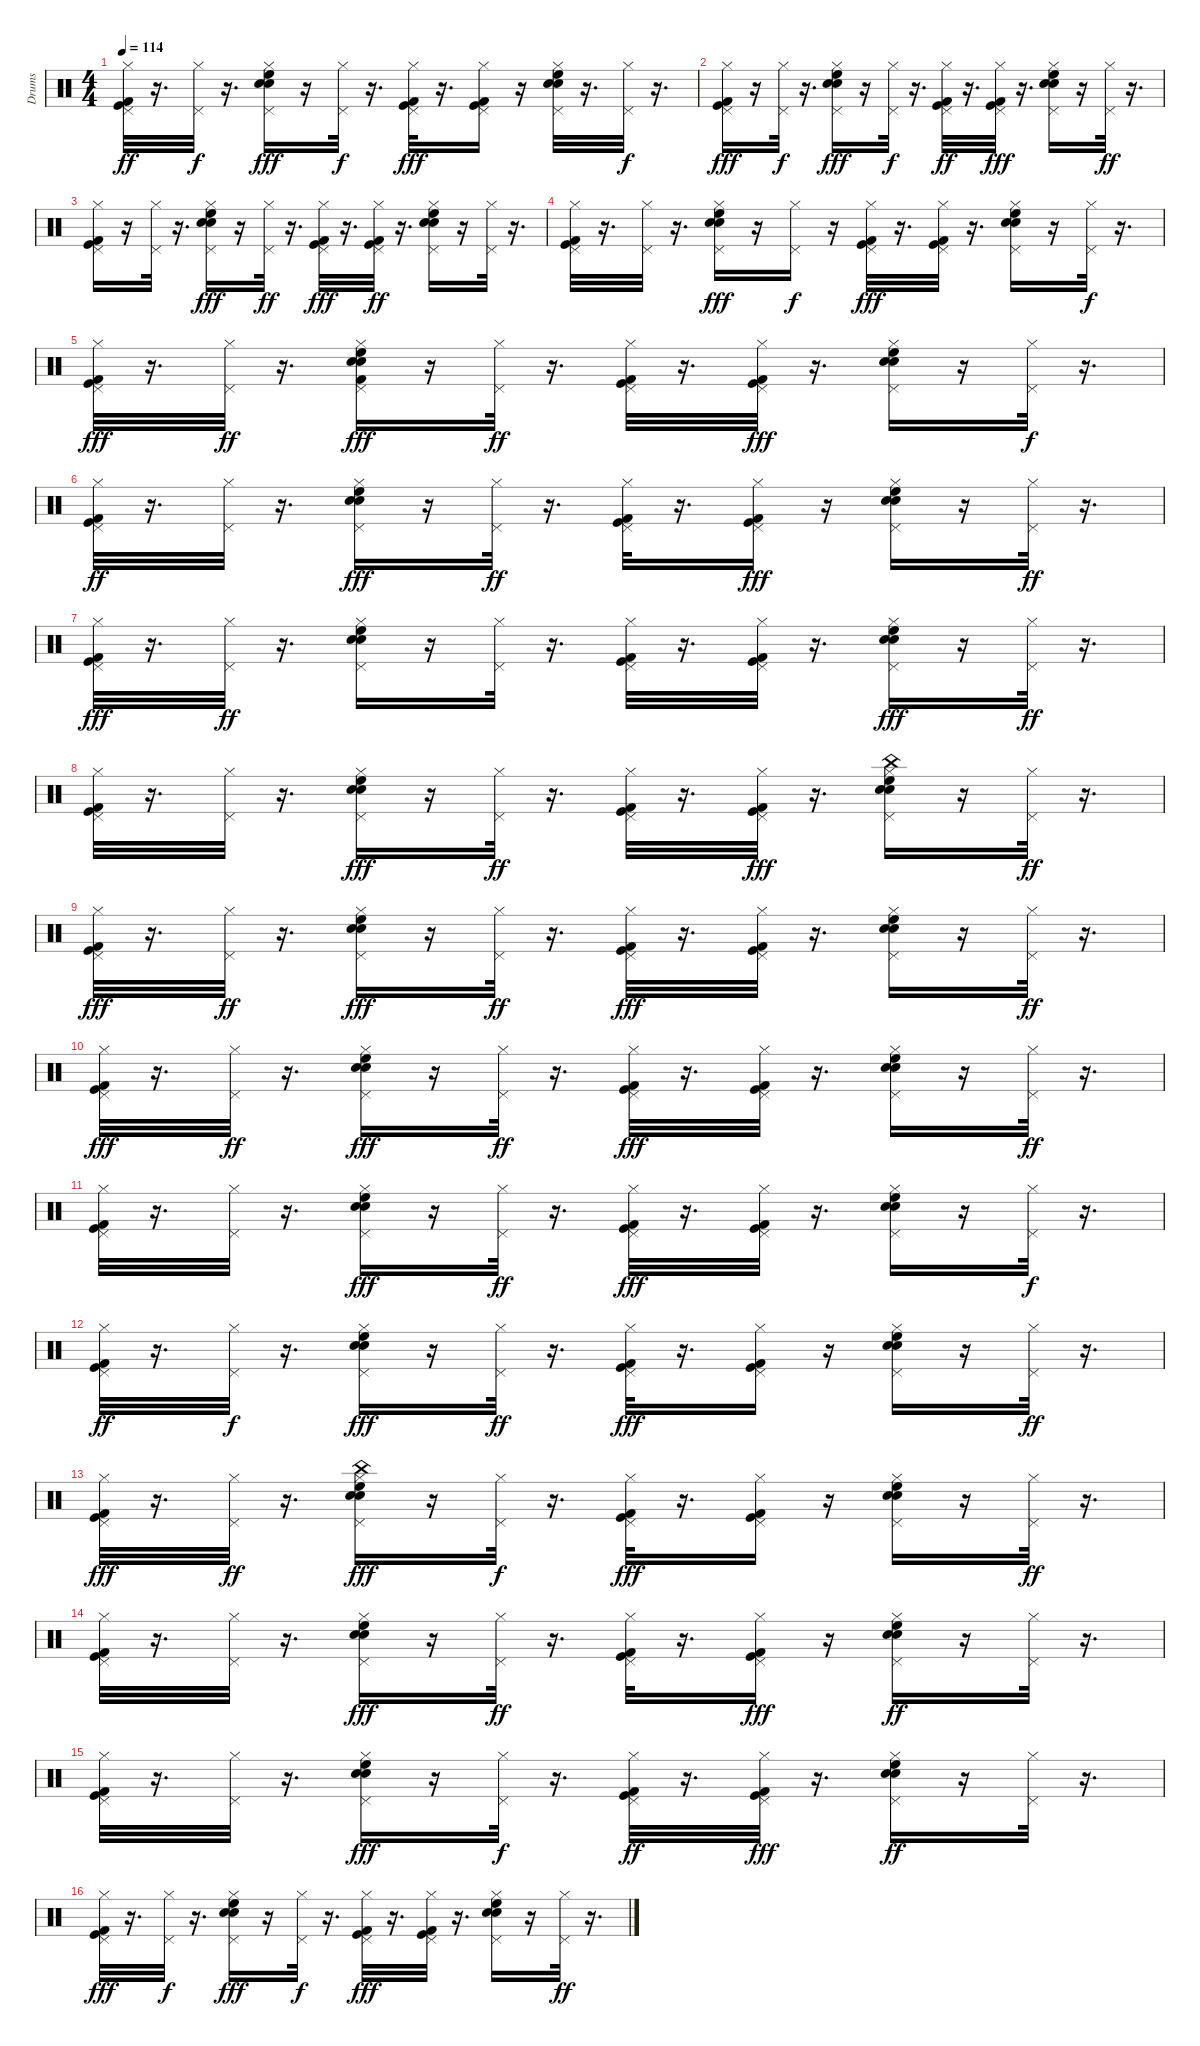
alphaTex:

\track ("Drums" "Drums") {instrument percussion}
\staff {score}
\articulation defaults
\ts (4 4)
\tempo 114
\clef neutral
\ks c
("Kick (hit)" "Pedal Hi-Hat (hit)" "Kick (hit) 2" "Hi-Hat (closed)").32{dy ff} r.16{d} ("Pedal Hi-Hat (hit)" "Hi-Hat (closed)").32{dy f} r.16{d} ("Electric Snare (hit)" "High Floor Tom (hit)" "Pedal Hi-Hat (hit)" "Hi-Hat (closed)" "Snare (hit) 2").16{dy fff} r.16 ("Pedal Hi-Hat (hit)" "Hi-Hat (closed)").32{dy f} r.16{d} ("Kick (hit) 2" "Kick (hit)" "Pedal Hi-Hat (hit)" "Hi-Hat (closed)").32{dy fff} r.16{d} ("Kick (hit)" "Kick (hit) 2" "Pedal Hi-Hat (hit)" "Hi-Hat (closed)").16 r.16 ("Snare (hit) 2" "Electric Snare (hit)" "High Floor Tom (hit)" "Pedal Hi-Hat (hit)" "Hi-Hat (closed)").32 r.16{d} ("Pedal Hi-Hat (hit)" "Hi-Hat (closed)").32{dy f} r.16{d} |
("Kick (hit)" "Pedal Hi-Hat (hit)" "Hi-Hat (closed)" "Kick (hit) 2").16{dy fff} r.16 ("Pedal Hi-Hat (hit)" "Hi-Hat (closed)").32{dy f} r.16{d} ("High Floor Tom (hit)" "Snare (hit) 2" "Pedal Hi-Hat (hit)" "Hi-Hat (closed)" "Electric Snare (hit)").16{dy fff} r.16 ("Pedal Hi-Hat (hit)" "Hi-Hat (closed)").32{dy f} r.16{d} ("Pedal Hi-Hat (hit)" "Kick (hit) 2" "Kick (hit)" "Hi-Hat (closed)").32{dy ff} r.16{d} ("Pedal Hi-Hat (hit)" "Kick (hit)" "Hi-Hat (closed)" "Kick (hit) 2").32{dy fff} r.16{d} ("Snare (hit) 2" "High Floor Tom (hit)" "Pedal Hi-Hat (hit)" "Hi-Hat (closed)" "Electric Snare (hit)").16 r.16 ("Pedal Hi-Hat (hit)" "Hi-Hat (closed)").32{dy ff} r.16{d} |
("Kick (hit)" "Kick (hit) 2" "Pedal Hi-Hat (hit)" "Hi-Hat (closed)").16 r.16 ("Pedal Hi-Hat (hit)" "Hi-Hat (closed)").32 r.16{d} ("Snare (hit) 2" "Pedal Hi-Hat (hit)" "Hi-Hat (closed)" "High Floor Tom (hit)" "Electric Snare (hit)").16{dy fff} r.16 ("Pedal Hi-Hat (hit)" "Hi-Hat (closed)").32{dy ff} r.16{d} ("Pedal Hi-Hat (hit)" "Hi-Hat (closed)" "Kick (hit) 2" "Kick (hit)").32{dy fff} r.16{d} ("Kick (hit) 2" "Pedal Hi-Hat (hit)" "Kick (hit)" "Hi-Hat (closed)").32{dy ff} r.16{d} ("Snare (hit) 2" "High Floor Tom (hit)" "Electric Snare (hit)" "Pedal Hi-Hat (hit)" "Hi-Hat (closed)").16 r.16 ("Pedal Hi-Hat (hit)" "Hi-Hat (closed)").32 r.16{d} |
("Kick (hit)" "Kick (hit) 2" "Pedal Hi-Hat (hit)" "Hi-Hat (closed)").32 r.16{d} ("Pedal Hi-Hat (hit)" "Hi-Hat (closed)").32 r.16{d} ("Pedal Hi-Hat (hit)" "Snare (hit) 2" "Hi-Hat (closed)" "Electric Snare (hit)" "High Floor Tom (hit)").16{dy fff} r.16 ("Pedal Hi-Hat (hit)" "Hi-Hat (closed)").16{dy f} r.16 ("Pedal Hi-Hat (hit)" "Hi-Hat (closed)" "Kick (hit) 2" "Kick (hit)").32{dy fff} r.16{d} ("Pedal Hi-Hat (hit)" "Hi-Hat (closed)" "Kick (hit)" "Kick (hit) 2").32 r.16{d} ("Snare (hit) 2" "Pedal Hi-Hat (hit)" "Hi-Hat (closed)" "Electric Snare (hit)" "High Floor Tom (hit)").16 r.16 ("Pedal Hi-Hat (hit)" "Hi-Hat (closed)").32{dy f} r.16{d} |
("Pedal Hi-Hat (hit)" "Kick (hit)" "Hi-Hat (closed)" "Kick (hit) 2").32{dy fff} r.16{d} ("Pedal Hi-Hat (hit)" "Hi-Hat (closed)").32{dy ff} r.16{d} ("Kick (hit) 2" "Pedal Hi-Hat (hit)" "Snare (hit) 2" "Hi-Hat (closed)" "High Floor Tom (hit)" "Electric Snare (hit)").16{dy fff} r.16 ("Pedal Hi-Hat (hit)" "Hi-Hat (closed)").32{dy ff} r.16{d} ("Pedal Hi-Hat (hit)" "Kick (hit) 2" "Kick (hit)" "Hi-Hat (closed)").32 r.16{d} ("Pedal Hi-Hat (hit)" "Hi-Hat (closed)" "Kick (hit)" "Kick (hit) 2").32{dy fff} r.16{d} ("Pedal Hi-Hat (hit)" "Hi-Hat (closed)" "High Floor Tom (hit)" "Electric Snare (hit)" "Snare (hit) 2").16 r.16 ("Pedal Hi-Hat (hit)" "Hi-Hat (closed)").32{dy f} r.16{d} |
("Kick (hit)" "Kick (hit) 2" "Pedal Hi-Hat (hit)" "Hi-Hat (closed)").32{dy ff} r.16{d} ("Pedal Hi-Hat (hit)" "Hi-Hat (closed)").32 r.16{d} ("Electric Snare (hit)" "Pedal Hi-Hat (hit)" "Snare (hit) 2" "Hi-Hat (closed)" "High Floor Tom (hit)").16{dy fff} r.16 ("Pedal Hi-Hat (hit)" "Hi-Hat (closed)").32{dy ff} r.16{d} ("Kick (hit)" "Kick (hit) 2" "Pedal Hi-Hat (hit)" "Hi-Hat (closed)").32 r.16{d} ("Kick (hit)" "Pedal Hi-Hat (hit)" "Hi-Hat (closed)" "Kick (hit) 2").16{dy fff} r.16 ("Electric Snare (hit)" "High Floor Tom (hit)" "Pedal Hi-Hat (hit)" "Hi-Hat (closed)" "Snare (hit) 2").16 r.16 ("Pedal Hi-Hat (hit)" "Hi-Hat (closed)").32{dy ff} r.16{d} |
("Kick (hit)" "Pedal Hi-Hat (hit)" "Hi-Hat (closed)" "Kick (hit) 2").32{dy fff} r.16{d} ("Pedal Hi-Hat (hit)" "Hi-Hat (closed)").32{dy ff} r.16{d} ("Electric Snare (hit)" "High Floor Tom (hit)" "Pedal Hi-Hat (hit)" "Snare (hit) 2" "Hi-Hat (closed)").16 r.16 ("Pedal Hi-Hat (hit)" "Hi-Hat (closed)").32 r.16{d} ("Kick (hit) 2" "Kick (hit)" "Pedal Hi-Hat (hit)" "Hi-Hat (closed)").32 r.16{d} ("Kick (hit) 2" "Kick (hit)" "Pedal Hi-Hat (hit)" "Hi-Hat (closed)").32 r.16{d} ("Snare (hit) 2" "Electric Snare (hit)" "Pedal Hi-Hat (hit)" "Hi-Hat (closed)" "High Floor Tom (hit)").16{dy fff} r.16 ("Pedal Hi-Hat (hit)" "Hi-Hat (closed)").32{dy ff} r.16{d} |
("Kick (hit)" "Kick (hit) 2" "Pedal Hi-Hat (hit)" "Hi-Hat (closed)").32 r.16{d} ("Pedal Hi-Hat (hit)" "Hi-Hat (closed)").32 r.16{d} ("Electric Snare (hit)" "Pedal Hi-Hat (hit)" "Hi-Hat (closed)" "Snare (hit) 2" "High Floor Tom (hit)").16{dy fff} r.16 ("Pedal Hi-Hat (hit)" "Hi-Hat (closed)").32{dy ff} r.16{d} ("Kick (hit)" "Kick (hit) 2" "Pedal Hi-Hat (hit)" "Hi-Hat (closed)").32 r.16{d} ("Kick (hit)" "Pedal Hi-Hat (hit)" "Hi-Hat (closed)" "Kick (hit) 2").32{dy fff} r.16{d} ("Snare (hit) 2" "Electric Snare (hit)" "Pedal Hi-Hat (hit)" "Hi-Hat (closed)" "China (hit)" "High Floor Tom (hit)").16 r.16 ("Pedal Hi-Hat (hit)" "Hi-Hat (closed)").32{dy ff} r.16{d} |
("Kick (hit)" "Pedal Hi-Hat (hit)" "Hi-Hat (closed)" "Kick (hit) 2").32{dy fff} r.16{d} ("Pedal Hi-Hat (hit)" "Hi-Hat (closed)").32{dy ff} r.16{d} ("Pedal Hi-Hat (hit)" "Hi-Hat (closed)" "Snare (hit) 2" "Electric Snare (hit)" "High Floor Tom (hit)").16{dy fff} r.16 ("Pedal Hi-Hat (hit)" "Hi-Hat (closed)").32{dy ff} r.16{d} ("Pedal Hi-Hat (hit)" "Hi-Hat (closed)" "Kick (hit)" "Kick (hit) 2").32{dy fff} r.16{d} ("Pedal Hi-Hat (hit)" "Hi-Hat (closed)" "Kick (hit)" "Kick (hit) 2").32 r.16{d} ("Snare (hit) 2" "High Floor Tom (hit)" "Pedal Hi-Hat (hit)" "Hi-Hat (closed)" "Electric Snare (hit)").16 r.16 ("Pedal Hi-Hat (hit)" "Hi-Hat (closed)").32{dy ff} r.16{d} |
("Kick (hit)" "Hi-Hat (closed)" "Pedal Hi-Hat (hit)" "Kick (hit) 2").32{dy fff} r.16{d} ("Hi-Hat (closed)" "Pedal Hi-Hat (hit)").32{dy ff} r.16{d} ("Snare (hit) 2" "Pedal Hi-Hat (hit)" "Hi-Hat (closed)" "Electric Snare (hit)" "High Floor Tom (hit)").16{dy fff} r.16 ("Pedal Hi-Hat (hit)" "Hi-Hat (closed)").32{dy ff} r.16{d} ("Pedal Hi-Hat (hit)" "Kick (hit)" "Hi-Hat (closed)" "Kick (hit) 2").32{dy fff} r.16{d} ("Kick (hit)" "Pedal Hi-Hat (hit)" "Hi-Hat (closed)" "Kick (hit) 2").32 r.16{d} ("Snare (hit) 2" "High Floor Tom (hit)" "Pedal Hi-Hat (hit)" "Hi-Hat (closed)" "Electric Snare (hit)").16 r.16 ("Pedal Hi-Hat (hit)" "Hi-Hat (closed)").32{dy ff} r.16{d} |
("Kick (hit)" "Kick (hit) 2" "Pedal Hi-Hat (hit)" "Hi-Hat (closed)").32 r.16{d} ("Pedal Hi-Hat (hit)" "Hi-Hat (closed)").32 r.16{d} ("Snare (hit) 2" "Pedal Hi-Hat (hit)" "Hi-Hat (closed)" "High Floor Tom (hit)" "Electric Snare (hit)").16{dy fff} r.16 ("Pedal Hi-Hat (hit)" "Hi-Hat (closed)").32{dy ff} r.16{d} ("Kick (hit)" "Pedal Hi-Hat (hit)" "Hi-Hat (closed)" "Kick (hit) 2").32{dy fff} r.16{d} ("Pedal Hi-Hat (hit)" "Hi-Hat (closed)" "Kick (hit) 2" "Kick (hit)").32 r.16{d} ("Snare (hit) 2" "Pedal Hi-Hat (hit)" "Hi-Hat (closed)" "Electric Snare (hit)" "High Floor Tom (hit)").16 r.16 ("Pedal Hi-Hat (hit)" "Hi-Hat (closed)").32{dy f} r.16{d} |
("Kick (hit)" "Pedal Hi-Hat (hit)" "Kick (hit) 2" "Hi-Hat (closed)").32{dy ff} r.16{d} ("Pedal Hi-Hat (hit)" "Hi-Hat (closed)").32{dy f} r.16{d} ("Pedal Hi-Hat (hit)" "Hi-Hat (closed)" "Electric Snare (hit)" "Snare (hit) 2" "High Floor Tom (hit)").16{dy fff} r.16 ("Pedal Hi-Hat (hit)" "Hi-Hat (closed)").32{dy ff} r.16{d} ("Pedal Hi-Hat (hit)" "Hi-Hat (closed)" "Kick (hit)" "Kick (hit) 2").32{dy fff} r.16{d} ("Pedal Hi-Hat (hit)" "Hi-Hat (closed)" "Kick (hit)" "Kick (hit) 2").16 r.16 ("Pedal Hi-Hat (hit)" "Snare (hit) 2" "Hi-Hat (closed)" "High Floor Tom (hit)" "Electric Snare (hit)").16 r.16 ("Pedal Hi-Hat (hit)" "Hi-Hat (closed)").32{dy ff} r.16{d} |
("Pedal Hi-Hat (hit)" "Kick (hit)" "Hi-Hat (closed)" "Kick (hit) 2").32{dy fff} r.16{d} ("Pedal Hi-Hat (hit)" "Hi-Hat (closed)").32{dy ff} r.16{d} ("Pedal Hi-Hat (hit)" "Hi-Hat (closed)" "China (hit)" "High Floor Tom (hit)" "Snare (hit) 2" "Electric Snare (hit)").16{dy fff} r.16 ("Pedal Hi-Hat (hit)" "Hi-Hat (closed)").32{dy f} r.16{d} ("Kick (hit) 2" "Pedal Hi-Hat (hit)" "Hi-Hat (closed)" "Kick (hit)").32{dy fff} r.16{d} ("Pedal Hi-Hat (hit)" "Hi-Hat (closed)" "Kick (hit) 2" "Kick (hit)").16 r.16 ("Snare (hit) 2" "High Floor Tom (hit)" "Pedal Hi-Hat (hit)" "Hi-Hat (closed)" "Electric Snare (hit)").16 r.16 ("Pedal Hi-Hat (hit)" "Hi-Hat (closed)").32{dy ff} r.16{d} |
("Kick (hit) 2" "Kick (hit)" "Pedal Hi-Hat (hit)" "Hi-Hat (closed)").32 r.16{d} ("Pedal Hi-Hat (hit)" "Hi-Hat (closed)").32 r.16{d} ("Electric Snare (hit)" "Snare (hit) 2" "Pedal Hi-Hat (hit)" "Hi-Hat (closed)" "High Floor Tom (hit)").16{dy fff} r.16 ("Pedal Hi-Hat (hit)" "Hi-Hat (closed)").32{dy ff} r.16{d} ("Kick (hit) 2" "Kick (hit)" "Pedal Hi-Hat (hit)" "Hi-Hat (closed)").32 r.16{d} ("Pedal Hi-Hat (hit)" "Hi-Hat (closed)" "Kick (hit)" "Kick (hit) 2").16{dy fff} r.16 ("Electric Snare (hit)" "Snare (hit) 2" "High Floor Tom (hit)" "Pedal Hi-Hat (hit)" "Hi-Hat (closed)").16{dy ff} r.16 ("Pedal Hi-Hat (hit)" "Hi-Hat (closed)").32 r.16{d} |
("Kick (hit) 2" "Kick (hit)" "Pedal Hi-Hat (hit)" "Hi-Hat (closed)").32 r.16{d} ("Pedal Hi-Hat (hit)" "Hi-Hat (closed)").32 r.16{d} ("Electric Snare (hit)" "Pedal Hi-Hat (hit)" "Hi-Hat (closed)" "Snare (hit) 2" "High Floor Tom (hit)").16{dy fff} r.16 ("Pedal Hi-Hat (hit)" "Hi-Hat (closed)").32{dy f} r.16{d} ("Kick (hit) 2" "Kick (hit)" "Pedal Hi-Hat (hit)" "Hi-Hat (closed)").32{dy ff} r.16{d} ("Kick (hit)" "Pedal Hi-Hat (hit)" "Hi-Hat (closed)" "Kick (hit) 2").32{dy fff} r.16{d} ("High Floor Tom (hit)" "Electric Snare (hit)" "Pedal Hi-Hat (hit)" "Snare (hit) 2" "Hi-Hat (closed)").16{dy ff} r.16 ("Pedal Hi-Hat (hit)" "Hi-Hat (closed)").32 r.16{d} |
("Kick (hit)" "Pedal Hi-Hat (hit)" "Hi-Hat (closed)" "Kick (hit) 2").32{dy fff} r.16{d} ("Pedal Hi-Hat (hit)" "Hi-Hat (closed)").32{dy f} r.16{d} ("Snare (hit) 2" "Electric Snare (hit)" "Pedal Hi-Hat (hit)" "Hi-Hat (closed)" "High Floor Tom (hit)").16{dy fff} r.16 ("Pedal Hi-Hat (hit)" "Hi-Hat (closed)").32{dy f} r.16{d} ("Pedal Hi-Hat (hit)" "Hi-Hat (closed)" "Kick (hit)" "Kick (hit) 2").32{dy fff} r.16{d} ("Pedal Hi-Hat (hit)" "Hi-Hat (closed)" "Kick (hit)" "Kick (hit) 2").32 r.16{d} ("Pedal Hi-Hat (hit)" "Hi-Hat (closed)" "Snare (hit) 2" "High Floor Tom (hit)" "Electric Snare (hit)").16 r.16 ("Pedal Hi-Hat (hit)" "Hi-Hat (closed)").32{dy ff} r.16{d}
